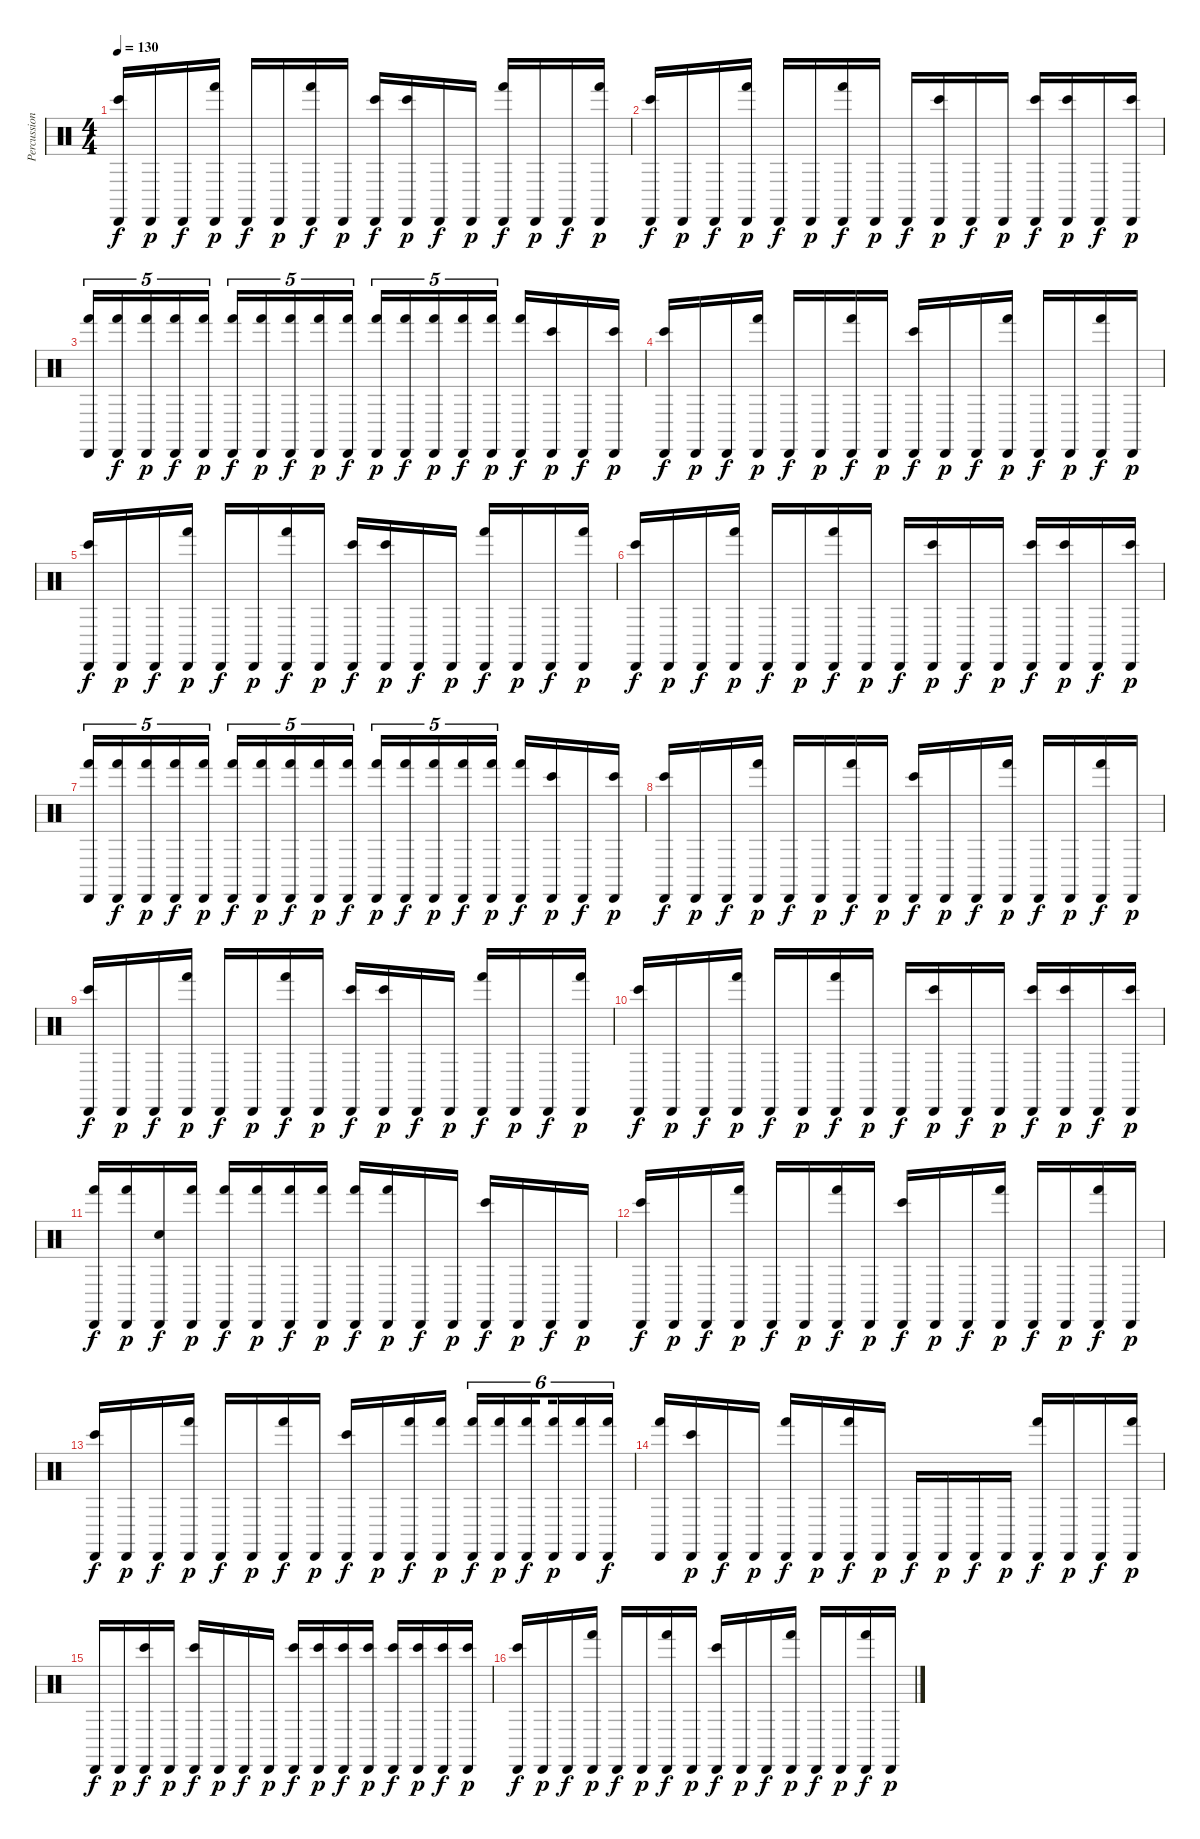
\track ("Percussion" "Percussion") {instrument percussion}
\staff {score}
\articulation defaults
\ts (4 4)
\tempo 130
\clef neutral
\ks c
("Cabasa (hit)" "Bongo High (hit)").16{dy f} "Cabasa (hit)".16{dy p} "Cabasa (hit)".16{dy f} ("Cabasa (hit)" "Hand (hit)").16{dy p} "Cabasa (hit)".16{dy f} "Cabasa (hit)".16{dy p} ("Cabasa (hit)" "Hand (hit)").16{dy f} "Cabasa (hit)".16{dy p} ("Cabasa (hit)" "Bongo High (hit)").16{dy f} ("Cabasa (hit)" "Bongo High (hit)").16{dy p} "Cabasa (hit)".16{dy f} "Cabasa (hit)".16{dy p} ("Cabasa (hit)" "Hand (hit)").16{dy f} "Cabasa (hit)".16{dy p} "Cabasa (hit)".16{dy f} ("Cabasa (hit)" "Hand (hit)").16{dy p} |
("Cabasa (hit)" "Bongo High (hit)").16{dy f} "Cabasa (hit)".16{dy p} "Cabasa (hit)".16{dy f} ("Cabasa (hit)" "Hand (hit)").16{dy p} "Cabasa (hit)".16{dy f} "Cabasa (hit)".16{dy p} ("Cabasa (hit)" "Hand (hit)").16{dy f} "Cabasa (hit)".16{dy p} "Cabasa (hit)".16{dy f} ("Cabasa (hit)" "Bongo High (hit)").16{dy p} "Cabasa (hit)".16{dy f} "Cabasa (hit)".16{dy p} ("Cabasa (hit)" "Bongo High (hit)").16{dy f} ("Cabasa (hit)" "Bongo High (hit)").16{dy p} "Cabasa (hit)".16{dy f} ("Cabasa (hit)" "Bongo High (hit)").16{dy p} |
("Cabasa (hit)" "Hand (hit)").16{tu (5 4)} ("Cabasa (hit)" "Hand (hit)").16{tu (5 4) dy f} ("Cabasa (hit)" "Hand (hit)").16{tu (5 4) dy p} ("Cabasa (hit)" "Hand (hit)").16{tu (5 4) dy f} ("Cabasa (hit)" "Hand (hit)").16{tu (5 4) dy p} ("Cabasa (hit)" "Hand (hit)").16{tu (5 4) dy f} ("Cabasa (hit)" "Hand (hit)").16{tu (5 4) dy p} ("Cabasa (hit)" "Hand (hit)").16{tu (5 4) dy f} ("Cabasa (hit)" "Hand (hit)").16{tu (5 4) dy p} ("Cabasa (hit)" "Hand (hit)").16{tu (5 4) dy f} ("Cabasa (hit)" "Hand (hit)").16{tu (5 4) dy p} ("Cabasa (hit)" "Hand (hit)").16{tu (5 4) dy f} ("Cabasa (hit)" "Hand (hit)").16{tu (5 4) dy p} ("Cabasa (hit)" "Hand (hit)").16{tu (5 4) dy f} ("Cabasa (hit)" "Hand (hit)").16{tu (5 4) dy p} ("Cabasa (hit)" "Hand (hit)").16{dy f} ("Cabasa (hit)" "Bongo High (hit)").16{dy p} "Cabasa (hit)".16{dy f} ("Cabasa (hit)" "Bongo High (hit)").16{dy p} |
("Cabasa (hit)" "Bongo High (hit)").16{dy f} "Cabasa (hit)".16{dy p} "Cabasa (hit)".16{dy f} ("Cabasa (hit)" "Hand (hit)").16{dy p} "Cabasa (hit)".16{dy f} "Cabasa (hit)".16{dy p} ("Cabasa (hit)" "Hand (hit)").16{dy f} "Cabasa (hit)".16{dy p} ("Cabasa (hit)" "Bongo High (hit)").16{dy f} "Cabasa (hit)".16{dy p} "Cabasa (hit)".16{dy f} ("Cabasa (hit)" "Hand (hit)").16{dy p} "Cabasa (hit)".16{dy f} "Cabasa (hit)".16{dy p} ("Cabasa (hit)" "Hand (hit)").16{dy f} "Cabasa (hit)".16{dy p} |
("Cabasa (hit)" "Bongo High (hit)").16{dy f} "Cabasa (hit)".16{dy p} "Cabasa (hit)".16{dy f} ("Cabasa (hit)" "Hand (hit)").16{dy p} "Cabasa (hit)".16{dy f} "Cabasa (hit)".16{dy p} ("Cabasa (hit)" "Hand (hit)").16{dy f} "Cabasa (hit)".16{dy p} ("Cabasa (hit)" "Bongo High (hit)").16{dy f} ("Cabasa (hit)" "Bongo High (hit)").16{dy p} "Cabasa (hit)".16{dy f} "Cabasa (hit)".16{dy p} ("Cabasa (hit)" "Hand (hit)").16{dy f} "Cabasa (hit)".16{dy p} "Cabasa (hit)".16{dy f} ("Cabasa (hit)" "Hand (hit)").16{dy p} |
("Cabasa (hit)" "Bongo High (hit)").16{dy f} "Cabasa (hit)".16{dy p} "Cabasa (hit)".16{dy f} ("Cabasa (hit)" "Hand (hit)").16{dy p} "Cabasa (hit)".16{dy f} "Cabasa (hit)".16{dy p} ("Cabasa (hit)" "Hand (hit)").16{dy f} "Cabasa (hit)".16{dy p} "Cabasa (hit)".16{dy f} ("Cabasa (hit)" "Bongo High (hit)").16{dy p} "Cabasa (hit)".16{dy f} "Cabasa (hit)".16{dy p} ("Cabasa (hit)" "Bongo High (hit)").16{dy f} ("Cabasa (hit)" "Bongo High (hit)").16{dy p} "Cabasa (hit)".16{dy f} ("Cabasa (hit)" "Bongo High (hit)").16{dy p} |
("Cabasa (hit)" "Hand (hit)").16{tu (5 4)} ("Cabasa (hit)" "Hand (hit)").16{tu (5 4) dy f} ("Cabasa (hit)" "Hand (hit)").16{tu (5 4) dy p} ("Cabasa (hit)" "Hand (hit)").16{tu (5 4) dy f} ("Cabasa (hit)" "Hand (hit)").16{tu (5 4) dy p} ("Cabasa (hit)" "Hand (hit)").16{tu (5 4) dy f} ("Cabasa (hit)" "Hand (hit)").16{tu (5 4) dy p} ("Cabasa (hit)" "Hand (hit)").16{tu (5 4) dy f} ("Cabasa (hit)" "Hand (hit)").16{tu (5 4) dy p} ("Cabasa (hit)" "Hand (hit)").16{tu (5 4) dy f} ("Cabasa (hit)" "Hand (hit)").16{tu (5 4) dy p} ("Cabasa (hit)" "Hand (hit)").16{tu (5 4) dy f} ("Cabasa (hit)" "Hand (hit)").16{tu (5 4) dy p} ("Cabasa (hit)" "Hand (hit)").16{tu (5 4) dy f} ("Cabasa (hit)" "Hand (hit)").16{tu (5 4) dy p} ("Cabasa (hit)" "Hand (hit)").16{dy f} ("Cabasa (hit)" "Bongo High (hit)").16{dy p} "Cabasa (hit)".16{dy f} ("Cabasa (hit)" "Bongo High (hit)").16{dy p} |
("Cabasa (hit)" "Bongo High (hit)").16{dy f} "Cabasa (hit)".16{dy p} "Cabasa (hit)".16{dy f} ("Cabasa (hit)" "Hand (hit)").16{dy p} "Cabasa (hit)".16{dy f} "Cabasa (hit)".16{dy p} ("Cabasa (hit)" "Hand (hit)").16{dy f} "Cabasa (hit)".16{dy p} ("Cabasa (hit)" "Bongo High (hit)").16{dy f} "Cabasa (hit)".16{dy p} "Cabasa (hit)".16{dy f} ("Cabasa (hit)" "Hand (hit)").16{dy p} "Cabasa (hit)".16{dy f} "Cabasa (hit)".16{dy p} ("Cabasa (hit)" "Hand (hit)").16{dy f} "Cabasa (hit)".16{dy p} |
("Cabasa (hit)" "Bongo High (hit)").16{dy f} "Cabasa (hit)".16{dy p} "Cabasa (hit)".16{dy f} ("Cabasa (hit)" "Hand (hit)").16{dy p} "Cabasa (hit)".16{dy f} "Cabasa (hit)".16{dy p} ("Cabasa (hit)" "Hand (hit)").16{dy f} "Cabasa (hit)".16{dy p} ("Cabasa (hit)" "Bongo High (hit)").16{dy f} ("Cabasa (hit)" "Bongo High (hit)").16{dy p} "Cabasa (hit)".16{dy f} "Cabasa (hit)".16{dy p} ("Cabasa (hit)" "Hand (hit)").16{dy f} "Cabasa (hit)".16{dy p} "Cabasa (hit)".16{dy f} ("Cabasa (hit)" "Hand (hit)").16{dy p} |
("Cabasa (hit)" "Bongo High (hit)").16{dy f} "Cabasa (hit)".16{dy p} "Cabasa (hit)".16{dy f} ("Cabasa (hit)" "Hand (hit)").16{dy p} "Cabasa (hit)".16{dy f} "Cabasa (hit)".16{dy p} ("Cabasa (hit)" "Hand (hit)").16{dy f} "Cabasa (hit)".16{dy p} "Cabasa (hit)".16{dy f} ("Cabasa (hit)" "Bongo High (hit)").16{dy p} "Cabasa (hit)".16{dy f} "Cabasa (hit)".16{dy p} ("Cabasa (hit)" "Bongo High (hit)").16{dy f} ("Cabasa (hit)" "Bongo High (hit)").16{dy p} "Cabasa (hit)".16{dy f} ("Cabasa (hit)" "Bongo High (hit)").16{dy p} |
("Cabasa (hit)" "Hand (hit)").16{dy f} ("Cabasa (hit)" "Hand (hit)").16{dy p} ("Cabasa (hit)" "Snare (hit)").16{dy f} ("Cabasa (hit)" "Hand (hit)").16{dy p} ("Cabasa (hit)" "Hand (hit)").16{dy f} ("Cabasa (hit)" "Hand (hit)").16{dy p} ("Cabasa (hit)" "Hand (hit)").16{dy f} ("Cabasa (hit)" "Hand (hit)").16{dy p} ("Cabasa (hit)" "Hand (hit)").16{dy f} ("Cabasa (hit)" "Hand (hit)").16{dy p} "Cabasa (hit)".16{dy f} "Cabasa (hit)".16{dy p} ("Cabasa (hit)" "Bongo High (hit)").16{dy f} "Cabasa (hit)".16{dy p} "Cabasa (hit)".16{dy f} "Cabasa (hit)".16{dy p} |
("Cabasa (hit)" "Bongo High (hit)").16{dy f} "Cabasa (hit)".16{dy p} "Cabasa (hit)".16{dy f} ("Cabasa (hit)" "Hand (hit)").16{dy p} "Cabasa (hit)".16{dy f} "Cabasa (hit)".16{dy p} ("Cabasa (hit)" "Hand (hit)").16{dy f} "Cabasa (hit)".16{dy p} ("Cabasa (hit)" "Bongo High (hit)").16{dy f} "Cabasa (hit)".16{dy p} "Cabasa (hit)".16{dy f} ("Cabasa (hit)" "Hand (hit)").16{dy p} "Cabasa (hit)".16{dy f} "Cabasa (hit)".16{dy p} ("Cabasa (hit)" "Hand (hit)").16{dy f} "Cabasa (hit)".16{dy p} |
("Cabasa (hit)" "Bongo High (hit)").16{dy f} "Cabasa (hit)".16{dy p} "Cabasa (hit)".16{dy f} ("Cabasa (hit)" "Hand (hit)").16{dy p} "Cabasa (hit)".16{dy f} "Cabasa (hit)".16{dy p} ("Cabasa (hit)" "Hand (hit)").16{dy f} "Cabasa (hit)".16{dy p} ("Cabasa (hit)" "Bongo High (hit)").16{dy f} "Cabasa (hit)".16{dy p} ("Cabasa (hit)" "Hand (hit)").16{dy f} ("Cabasa (hit)" "Hand (hit)").16{dy p} ("Cabasa (hit)" "Hand (hit)").16{tu (6 4) dy f} ("Cabasa (hit)" "Hand (hit)").16{tu (6 4) dy p} ("Cabasa (hit)" "Hand (hit)").16{tu (6 4) dy f beam splitsecondary} ("Cabasa (hit)" "Hand (hit)").16{tu (6 4) dy p} ("Cabasa (hit)" "Hand (hit)").16{tu (6 4)} ("Cabasa (hit)" "Hand (hit)").16{tu (6 4) dy f} |
("Cabasa (hit)" "Hand (hit)").16 ("Cabasa (hit)" "Bongo High (hit)").16{dy p} "Cabasa (hit)".16{dy f} "Cabasa (hit)".16{dy p} ("Cabasa (hit)" "Hand (hit)").16{dy f} "Cabasa (hit)".16{dy p} ("Cabasa (hit)" "Hand (hit)").16{dy f} "Cabasa (hit)".16{dy p} "Cabasa (hit)".16{dy f} "Cabasa (hit)".16{dy p} "Cabasa (hit)".16{dy f} "Cabasa (hit)".16{dy p} ("Cabasa (hit)" "Hand (hit)").16{dy f} "Cabasa (hit)".16{dy p} "Cabasa (hit)".16{dy f} ("Cabasa (hit)" "Hand (hit)").16{dy p} |
"Cabasa (hit)".16{dy f} "Cabasa (hit)".16{dy p} ("Cabasa (hit)" "Bongo High (hit)").16{dy f} "Cabasa (hit)".16{dy p} ("Cabasa (hit)" "Bongo High (hit)").16{dy f} "Cabasa (hit)".16{dy p} "Cabasa (hit)".16{dy f} "Cabasa (hit)".16{dy p} ("Cabasa (hit)" "Bongo High (hit)").16{dy f} ("Cabasa (hit)" "Bongo High (hit)").16{dy p} ("Cabasa (hit)" "Bongo High (hit)").16{dy f} ("Cabasa (hit)" "Bongo High (hit)").16{dy p} ("Cabasa (hit)" "Bongo High (hit)").16{dy f} ("Cabasa (hit)" "Bongo High (hit)").16{dy p} ("Cabasa (hit)" "Bongo High (hit)").16{dy f} ("Cabasa (hit)" "Bongo High (hit)").16{dy p} |
("Cabasa (hit)" "Bongo High (hit)").16{dy f} "Cabasa (hit)".16{dy p} "Cabasa (hit)".16{dy f} ("Cabasa (hit)" "Hand (hit)").16{dy p} "Cabasa (hit)".16{dy f} "Cabasa (hit)".16{dy p} ("Cabasa (hit)" "Hand (hit)").16{dy f} "Cabasa (hit)".16{dy p} ("Cabasa (hit)" "Bongo High (hit)").16{dy f} "Cabasa (hit)".16{dy p} "Cabasa (hit)".16{dy f} ("Cabasa (hit)" "Hand (hit)").16{dy p} "Cabasa (hit)".16{dy f} "Cabasa (hit)".16{dy p} ("Cabasa (hit)" "Hand (hit)").16{dy f} "Cabasa (hit)".16{dy p}
